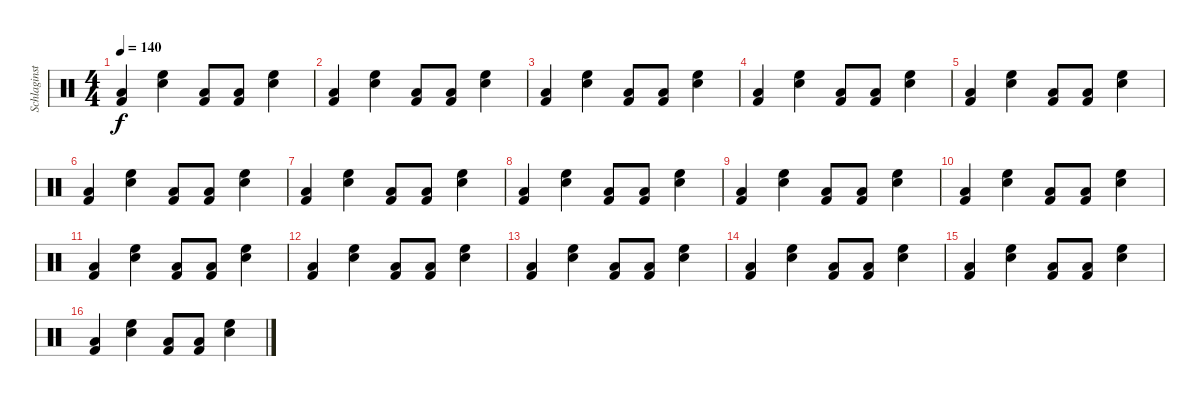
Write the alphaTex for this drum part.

\track ("Schlaginstrumente - Auswahl" "Schlaginst") {instrument percussion}
\staff {score}
\articulation defaults
\ts (4 4)
\tempo 140
\clef neutral
\ks c
("Low Tom (hit)" "Kick (hit) 2").4{dy f} ("Snare (hit) 2" "High Floor Tom (hit)").4 ("Low Tom (hit)" "Kick (hit) 2").8 ("Low Tom (hit)" "Kick (hit) 2").8 ("Snare (hit) 2" "High Floor Tom (hit)").4 |
("Low Tom (hit)" "Kick (hit) 2").4 ("Snare (hit) 2" "High Floor Tom (hit)").4 ("Low Tom (hit)" "Kick (hit) 2").8 ("Low Tom (hit)" "Kick (hit) 2").8 ("Snare (hit) 2" "High Floor Tom (hit)").4 |
("Low Tom (hit)" "Kick (hit) 2").4 ("Snare (hit) 2" "High Floor Tom (hit)").4 ("Low Tom (hit)" "Kick (hit) 2").8 ("Low Tom (hit)" "Kick (hit) 2").8 ("Snare (hit) 2" "High Floor Tom (hit)").4 |
("Low Tom (hit)" "Kick (hit) 2").4 ("Snare (hit) 2" "High Floor Tom (hit)").4 ("Low Tom (hit)" "Kick (hit) 2").8 ("Low Tom (hit)" "Kick (hit) 2").8 ("Snare (hit) 2" "High Floor Tom (hit)").4 |
("Low Tom (hit)" "Kick (hit) 2").4 ("Snare (hit) 2" "High Floor Tom (hit)").4 ("Low Tom (hit)" "Kick (hit) 2").8 ("Low Tom (hit)" "Kick (hit) 2").8 ("Snare (hit) 2" "High Floor Tom (hit)").4 |
("Low Tom (hit)" "Kick (hit) 2").4 ("Snare (hit) 2" "High Floor Tom (hit)").4 ("Low Tom (hit)" "Kick (hit) 2").8 ("Low Tom (hit)" "Kick (hit) 2").8 ("Snare (hit) 2" "High Floor Tom (hit)").4 |
("Low Tom (hit)" "Kick (hit) 2").4 ("Snare (hit) 2" "High Floor Tom (hit)").4 ("Low Tom (hit)" "Kick (hit) 2").8 ("Low Tom (hit)" "Kick (hit) 2").8 ("Snare (hit) 2" "High Floor Tom (hit)").4 |
("Low Tom (hit)" "Kick (hit) 2").4 ("Snare (hit) 2" "High Floor Tom (hit)").4 ("Low Tom (hit)" "Kick (hit) 2").8 ("Low Tom (hit)" "Kick (hit) 2").8 ("Snare (hit) 2" "High Floor Tom (hit)").4 |
("Low Tom (hit)" "Kick (hit) 2").4 ("Snare (hit) 2" "High Floor Tom (hit)").4 ("Low Tom (hit)" "Kick (hit) 2").8 ("Low Tom (hit)" "Kick (hit) 2").8 ("Snare (hit) 2" "High Floor Tom (hit)").4 |
("Low Tom (hit)" "Kick (hit) 2").4 ("Snare (hit) 2" "High Floor Tom (hit)").4 ("Low Tom (hit)" "Kick (hit) 2").8 ("Low Tom (hit)" "Kick (hit) 2").8 ("Snare (hit) 2" "High Floor Tom (hit)").4 |
("Low Tom (hit)" "Kick (hit) 2").4 ("Snare (hit) 2" "High Floor Tom (hit)").4 ("Low Tom (hit)" "Kick (hit) 2").8 ("Low Tom (hit)" "Kick (hit) 2").8 ("Snare (hit) 2" "High Floor Tom (hit)").4 |
("Low Tom (hit)" "Kick (hit) 2").4 ("Snare (hit) 2" "High Floor Tom (hit)").4 ("Low Tom (hit)" "Kick (hit) 2").8 ("Low Tom (hit)" "Kick (hit) 2").8 ("Snare (hit) 2" "High Floor Tom (hit)").4 |
("Low Tom (hit)" "Kick (hit) 2").4 ("Snare (hit) 2" "High Floor Tom (hit)").4 ("Low Tom (hit)" "Kick (hit) 2").8 ("Low Tom (hit)" "Kick (hit) 2").8 ("Snare (hit) 2" "High Floor Tom (hit)").4 |
("Low Tom (hit)" "Kick (hit) 2").4 ("Snare (hit) 2" "High Floor Tom (hit)").4 ("Low Tom (hit)" "Kick (hit) 2").8 ("Low Tom (hit)" "Kick (hit) 2").8 ("Snare (hit) 2" "High Floor Tom (hit)").4 |
("Low Tom (hit)" "Kick (hit) 2").4 ("Snare (hit) 2" "High Floor Tom (hit)").4 ("Low Tom (hit)" "Kick (hit) 2").8 ("Low Tom (hit)" "Kick (hit) 2").8 ("Snare (hit) 2" "High Floor Tom (hit)").4 |
("Low Tom (hit)" "Kick (hit) 2").4 ("Snare (hit) 2" "High Floor Tom (hit)").4 ("Low Tom (hit)" "Kick (hit) 2").8 ("Low Tom (hit)" "Kick (hit) 2").8 ("Snare (hit) 2" "High Floor Tom (hit)").4
